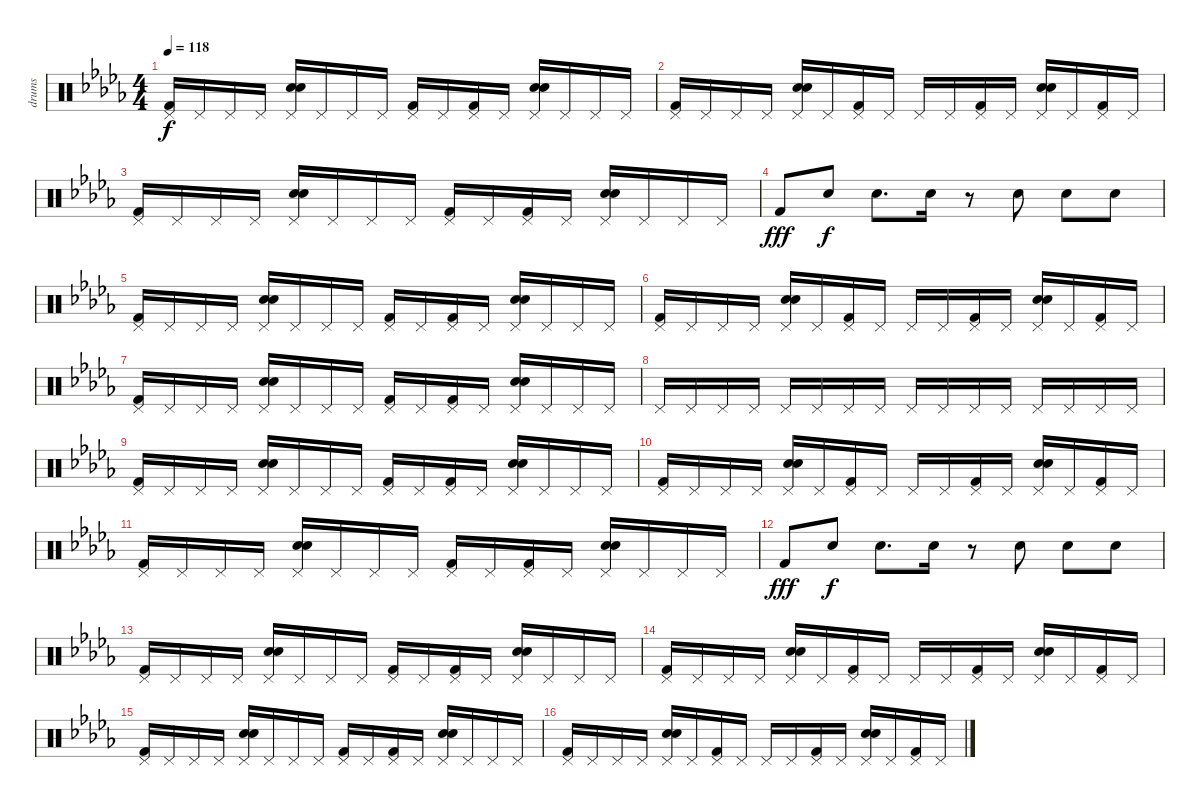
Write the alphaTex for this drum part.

\track ("drums" "drums") {instrument percussion}
\staff {score}
\articulation defaults
\ts (4 4)
\tempo 118
\clef neutral
\ks db
("Pedal Hi-Hat (hit)" "Kick (hit) 2").16{dy f} "Pedal Hi-Hat (hit)".16 "Pedal Hi-Hat (hit)".16 "Pedal Hi-Hat (hit)".16 ("Pedal Hi-Hat (hit)" "Hand Clap (hit)" "Snare (hit) 2").16 "Pedal Hi-Hat (hit)".16 "Pedal Hi-Hat (hit)".16 "Pedal Hi-Hat (hit)".16 ("Pedal Hi-Hat (hit)" "Kick (hit) 2").16 "Pedal Hi-Hat (hit)".16 ("Pedal Hi-Hat (hit)" "Kick (hit) 2").16 "Pedal Hi-Hat (hit)".16 ("Pedal Hi-Hat (hit)" "Hand Clap (hit)" "Snare (hit) 2").16 "Pedal Hi-Hat (hit)".16 "Pedal Hi-Hat (hit)".16 "Pedal Hi-Hat (hit)".16 |
("Pedal Hi-Hat (hit)" "Kick (hit) 2").16 "Pedal Hi-Hat (hit)".16 "Pedal Hi-Hat (hit)".16 "Pedal Hi-Hat (hit)".16 ("Pedal Hi-Hat (hit)" "Hand Clap (hit)" "Snare (hit) 2").16 "Pedal Hi-Hat (hit)".16 ("Pedal Hi-Hat (hit)" "Kick (hit) 2").16 "Pedal Hi-Hat (hit)".16 "Pedal Hi-Hat (hit)".16 "Pedal Hi-Hat (hit)".16 ("Pedal Hi-Hat (hit)" "Kick (hit) 2").16 "Pedal Hi-Hat (hit)".16 ("Pedal Hi-Hat (hit)" "Hand Clap (hit)" "Snare (hit) 2").16 "Pedal Hi-Hat (hit)".16 ("Pedal Hi-Hat (hit)" "Kick (hit) 2").16 "Pedal Hi-Hat (hit)".16 |
("Pedal Hi-Hat (hit)" "Kick (hit) 2").16 "Pedal Hi-Hat (hit)".16 "Pedal Hi-Hat (hit)".16 "Pedal Hi-Hat (hit)".16 ("Pedal Hi-Hat (hit)" "Hand Clap (hit)" "Snare (hit) 2").16 "Pedal Hi-Hat (hit)".16 "Pedal Hi-Hat (hit)".16 "Pedal Hi-Hat (hit)".16 ("Pedal Hi-Hat (hit)" "Kick (hit) 2").16 "Pedal Hi-Hat (hit)".16 ("Pedal Hi-Hat (hit)" "Kick (hit) 2").16 "Pedal Hi-Hat (hit)".16 ("Pedal Hi-Hat (hit)" "Hand Clap (hit)" "Snare (hit) 2").16 "Pedal Hi-Hat (hit)".16 "Pedal Hi-Hat (hit)".16 "Pedal Hi-Hat (hit)".16 |
"Kick (hit) 2".8{dy fff} "Snare (hit) 2".8{dy f} "Snare (hit) 2".8{d} "Snare (hit) 2".16 r.8 "Snare (hit) 2".8 "Snare (hit) 2".8 "Snare (hit) 2".8 |
("Pedal Hi-Hat (hit)" "Kick (hit) 2").16 "Pedal Hi-Hat (hit)".16 "Pedal Hi-Hat (hit)".16 "Pedal Hi-Hat (hit)".16 ("Pedal Hi-Hat (hit)" "Hand Clap (hit)" "Snare (hit) 2").16 "Pedal Hi-Hat (hit)".16 "Pedal Hi-Hat (hit)".16 "Pedal Hi-Hat (hit)".16 ("Pedal Hi-Hat (hit)" "Kick (hit) 2").16 "Pedal Hi-Hat (hit)".16 ("Pedal Hi-Hat (hit)" "Kick (hit) 2").16 "Pedal Hi-Hat (hit)".16 ("Pedal Hi-Hat (hit)" "Hand Clap (hit)" "Snare (hit) 2").16 "Pedal Hi-Hat (hit)".16 "Pedal Hi-Hat (hit)".16 "Pedal Hi-Hat (hit)".16 |
("Pedal Hi-Hat (hit)" "Kick (hit) 2").16 "Pedal Hi-Hat (hit)".16 "Pedal Hi-Hat (hit)".16 "Pedal Hi-Hat (hit)".16 ("Pedal Hi-Hat (hit)" "Hand Clap (hit)" "Snare (hit) 2").16 "Pedal Hi-Hat (hit)".16 ("Pedal Hi-Hat (hit)" "Kick (hit) 2").16 "Pedal Hi-Hat (hit)".16 "Pedal Hi-Hat (hit)".16 "Pedal Hi-Hat (hit)".16 ("Pedal Hi-Hat (hit)" "Kick (hit) 2").16 "Pedal Hi-Hat (hit)".16 ("Pedal Hi-Hat (hit)" "Hand Clap (hit)" "Snare (hit) 2").16 "Pedal Hi-Hat (hit)".16 ("Pedal Hi-Hat (hit)" "Kick (hit) 2").16 "Pedal Hi-Hat (hit)".16 |
("Pedal Hi-Hat (hit)" "Kick (hit) 2").16 "Pedal Hi-Hat (hit)".16 "Pedal Hi-Hat (hit)".16 "Pedal Hi-Hat (hit)".16 ("Pedal Hi-Hat (hit)" "Hand Clap (hit)" "Snare (hit) 2").16 "Pedal Hi-Hat (hit)".16 "Pedal Hi-Hat (hit)".16 "Pedal Hi-Hat (hit)".16 ("Pedal Hi-Hat (hit)" "Kick (hit) 2").16 "Pedal Hi-Hat (hit)".16 ("Pedal Hi-Hat (hit)" "Kick (hit) 2").16 "Pedal Hi-Hat (hit)".16 ("Pedal Hi-Hat (hit)" "Hand Clap (hit)" "Snare (hit) 2").16 "Pedal Hi-Hat (hit)".16 "Pedal Hi-Hat (hit)".16 "Pedal Hi-Hat (hit)".16 |
"Pedal Hi-Hat (hit)".16 "Pedal Hi-Hat (hit)".16 "Pedal Hi-Hat (hit)".16 "Pedal Hi-Hat (hit)".16 "Pedal Hi-Hat (hit)".16 "Pedal Hi-Hat (hit)".16 "Pedal Hi-Hat (hit)".16 "Pedal Hi-Hat (hit)".16 "Pedal Hi-Hat (hit)".16 "Pedal Hi-Hat (hit)".16 "Pedal Hi-Hat (hit)".16 "Pedal Hi-Hat (hit)".16 "Pedal Hi-Hat (hit)".16 "Pedal Hi-Hat (hit)".16 "Pedal Hi-Hat (hit)".16 "Pedal Hi-Hat (hit)".16 |
("Pedal Hi-Hat (hit)" "Kick (hit) 2").16 "Pedal Hi-Hat (hit)".16 "Pedal Hi-Hat (hit)".16 "Pedal Hi-Hat (hit)".16 ("Pedal Hi-Hat (hit)" "Hand Clap (hit)" "Snare (hit) 2").16 "Pedal Hi-Hat (hit)".16 "Pedal Hi-Hat (hit)".16 "Pedal Hi-Hat (hit)".16 ("Pedal Hi-Hat (hit)" "Kick (hit) 2").16 "Pedal Hi-Hat (hit)".16 ("Pedal Hi-Hat (hit)" "Kick (hit) 2").16 "Pedal Hi-Hat (hit)".16 ("Pedal Hi-Hat (hit)" "Hand Clap (hit)" "Snare (hit) 2").16 "Pedal Hi-Hat (hit)".16 "Pedal Hi-Hat (hit)".16 "Pedal Hi-Hat (hit)".16 |
("Pedal Hi-Hat (hit)" "Kick (hit) 2").16 "Pedal Hi-Hat (hit)".16 "Pedal Hi-Hat (hit)".16 "Pedal Hi-Hat (hit)".16 ("Pedal Hi-Hat (hit)" "Hand Clap (hit)" "Snare (hit) 2").16 "Pedal Hi-Hat (hit)".16 ("Pedal Hi-Hat (hit)" "Kick (hit) 2").16 "Pedal Hi-Hat (hit)".16 "Pedal Hi-Hat (hit)".16 "Pedal Hi-Hat (hit)".16 ("Pedal Hi-Hat (hit)" "Kick (hit) 2").16 "Pedal Hi-Hat (hit)".16 ("Pedal Hi-Hat (hit)" "Hand Clap (hit)" "Snare (hit) 2").16 "Pedal Hi-Hat (hit)".16 ("Pedal Hi-Hat (hit)" "Kick (hit) 2").16 "Pedal Hi-Hat (hit)".16 |
("Pedal Hi-Hat (hit)" "Kick (hit) 2").16 "Pedal Hi-Hat (hit)".16 "Pedal Hi-Hat (hit)".16 "Pedal Hi-Hat (hit)".16 ("Pedal Hi-Hat (hit)" "Hand Clap (hit)" "Snare (hit) 2").16 "Pedal Hi-Hat (hit)".16 "Pedal Hi-Hat (hit)".16 "Pedal Hi-Hat (hit)".16 ("Pedal Hi-Hat (hit)" "Kick (hit) 2").16 "Pedal Hi-Hat (hit)".16 ("Pedal Hi-Hat (hit)" "Kick (hit) 2").16 "Pedal Hi-Hat (hit)".16 ("Pedal Hi-Hat (hit)" "Hand Clap (hit)" "Snare (hit) 2").16 "Pedal Hi-Hat (hit)".16 "Pedal Hi-Hat (hit)".16 "Pedal Hi-Hat (hit)".16 |
"Kick (hit) 2".8{dy fff} "Snare (hit) 2".8{dy f} "Snare (hit) 2".8{d} "Snare (hit) 2".16 r.8 "Snare (hit) 2".8 "Snare (hit) 2".8 "Snare (hit) 2".8 |
("Pedal Hi-Hat (hit)" "Kick (hit) 2").16 "Pedal Hi-Hat (hit)".16 "Pedal Hi-Hat (hit)".16 "Pedal Hi-Hat (hit)".16 ("Pedal Hi-Hat (hit)" "Hand Clap (hit)" "Snare (hit) 2").16 "Pedal Hi-Hat (hit)".16 "Pedal Hi-Hat (hit)".16 "Pedal Hi-Hat (hit)".16 ("Pedal Hi-Hat (hit)" "Kick (hit) 2").16 "Pedal Hi-Hat (hit)".16 ("Pedal Hi-Hat (hit)" "Kick (hit) 2").16 "Pedal Hi-Hat (hit)".16 ("Pedal Hi-Hat (hit)" "Hand Clap (hit)" "Snare (hit) 2").16 "Pedal Hi-Hat (hit)".16 "Pedal Hi-Hat (hit)".16 "Pedal Hi-Hat (hit)".16 |
("Pedal Hi-Hat (hit)" "Kick (hit) 2").16 "Pedal Hi-Hat (hit)".16 "Pedal Hi-Hat (hit)".16 "Pedal Hi-Hat (hit)".16 ("Pedal Hi-Hat (hit)" "Hand Clap (hit)" "Snare (hit) 2").16 "Pedal Hi-Hat (hit)".16 ("Pedal Hi-Hat (hit)" "Kick (hit) 2").16 "Pedal Hi-Hat (hit)".16 "Pedal Hi-Hat (hit)".16 "Pedal Hi-Hat (hit)".16 ("Pedal Hi-Hat (hit)" "Kick (hit) 2").16 "Pedal Hi-Hat (hit)".16 ("Pedal Hi-Hat (hit)" "Hand Clap (hit)" "Snare (hit) 2").16 "Pedal Hi-Hat (hit)".16 ("Pedal Hi-Hat (hit)" "Kick (hit) 2").16 "Pedal Hi-Hat (hit)".16 |
("Pedal Hi-Hat (hit)" "Kick (hit) 2").16 "Pedal Hi-Hat (hit)".16 "Pedal Hi-Hat (hit)".16 "Pedal Hi-Hat (hit)".16 ("Pedal Hi-Hat (hit)" "Hand Clap (hit)" "Snare (hit) 2").16 "Pedal Hi-Hat (hit)".16 "Pedal Hi-Hat (hit)".16 "Pedal Hi-Hat (hit)".16 ("Pedal Hi-Hat (hit)" "Kick (hit) 2").16 "Pedal Hi-Hat (hit)".16 ("Pedal Hi-Hat (hit)" "Kick (hit) 2").16 "Pedal Hi-Hat (hit)".16 ("Pedal Hi-Hat (hit)" "Hand Clap (hit)" "Snare (hit) 2").16 "Pedal Hi-Hat (hit)".16 "Pedal Hi-Hat (hit)".16 "Pedal Hi-Hat (hit)".16 |
("Pedal Hi-Hat (hit)" "Kick (hit) 2").16 "Pedal Hi-Hat (hit)".16 "Pedal Hi-Hat (hit)".16 "Pedal Hi-Hat (hit)".16 ("Pedal Hi-Hat (hit)" "Hand Clap (hit)" "Snare (hit) 2").16 "Pedal Hi-Hat (hit)".16 ("Pedal Hi-Hat (hit)" "Kick (hit) 2").16 "Pedal Hi-Hat (hit)".16 "Pedal Hi-Hat (hit)".16 "Pedal Hi-Hat (hit)".16 ("Pedal Hi-Hat (hit)" "Kick (hit) 2").16 "Pedal Hi-Hat (hit)".16 ("Pedal Hi-Hat (hit)" "Hand Clap (hit)" "Snare (hit) 2").16 "Pedal Hi-Hat (hit)".16 ("Pedal Hi-Hat (hit)" "Kick (hit) 2").16 "Pedal Hi-Hat (hit)".16
